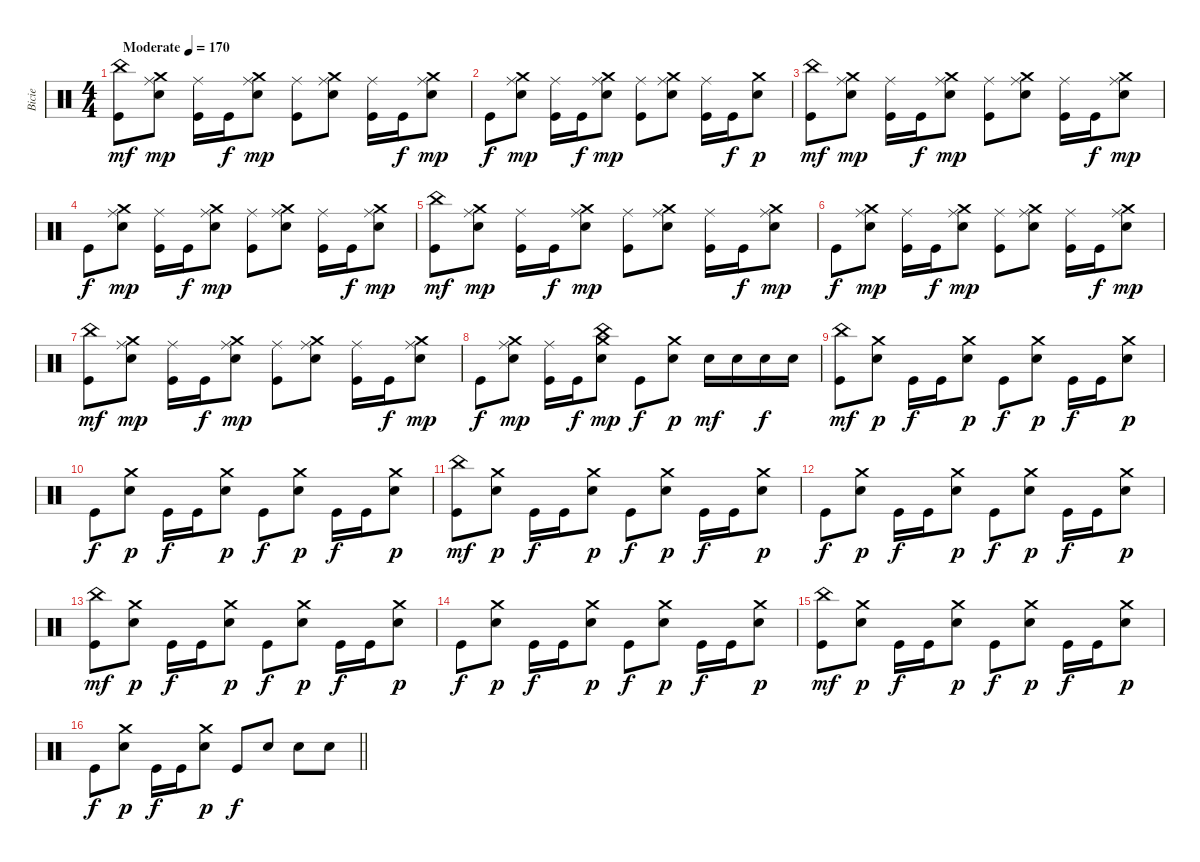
\track ("Bicie" "Bicie") {instrument percussion}
\staff {score}
\articulation defaults
\ts (4 4)
\tempo (170 "Moderate")
\clef neutral
\ks c
("Kick (hit)" "China (hit)").8{dy mf} ("Snare (hit) 2" "Crash medium (hit)" "Ride (middle)").8{dy mp} ("Kick (hit)" "Ride (middle)").16 "Kick (hit)".16{dy f} ("Snare (hit) 2" "Crash medium (hit)" "Ride (middle)").8{dy mp} ("Kick (hit)" "Ride (middle)").8 ("Snare (hit) 2" "Crash medium (hit)" "Ride (middle)").8 ("Kick (hit)" "Ride (middle)").16 "Kick (hit)".16{dy f} ("Snare (hit) 2" "Crash medium (hit)" "Ride (middle)").8{dy mp} |
"Kick (hit)".8{dy f} ("Snare (hit) 2" "Crash medium (hit)" "Ride (middle)").8{dy mp} ("Kick (hit)" "Ride (middle)").16 "Kick (hit)".16{dy f} ("Snare (hit) 2" "Crash medium (hit)" "Ride (middle)").8{dy mp} ("Kick (hit)" "Ride (middle)").8 ("Snare (hit) 2" "Crash medium (hit)" "Ride (middle)").8 ("Kick (hit)" "Ride (middle)").16 "Kick (hit)".16{dy f} ("Snare (hit) 2" "Crash medium (hit)").8{dy p} |
("Kick (hit)" "China (hit)").8{dy mf} ("Snare (hit) 2" "Crash medium (hit)" "Ride (middle)").8{dy mp} ("Kick (hit)" "Ride (middle)").16 "Kick (hit)".16{dy f} ("Snare (hit) 2" "Crash medium (hit)" "Ride (middle)").8{dy mp} ("Kick (hit)" "Ride (middle)").8 ("Snare (hit) 2" "Crash medium (hit)" "Ride (middle)").8 ("Kick (hit)" "Ride (middle)").16 "Kick (hit)".16{dy f} ("Snare (hit) 2" "Crash medium (hit)" "Ride (middle)").8{dy mp} |
"Kick (hit)".8{dy f} ("Snare (hit) 2" "Crash medium (hit)" "Ride (middle)").8{dy mp} ("Kick (hit)" "Ride (middle)").16 "Kick (hit)".16{dy f} ("Snare (hit) 2" "Crash medium (hit)" "Ride (middle)").8{dy mp} ("Kick (hit)" "Ride (middle)").8 ("Snare (hit) 2" "Crash medium (hit)" "Ride (middle)").8 ("Kick (hit)" "Ride (middle)").16 "Kick (hit)".16{dy f} ("Snare (hit) 2" "Crash medium (hit)" "Ride (middle)").8{dy mp} |
("Kick (hit)" "China (hit)").8{dy mf} ("Snare (hit) 2" "Crash medium (hit)" "Ride (middle)").8{dy mp} ("Kick (hit)" "Ride (middle)").16 "Kick (hit)".16{dy f} ("Snare (hit) 2" "Crash medium (hit)" "Ride (middle)").8{dy mp} ("Kick (hit)" "Ride (middle)").8 ("Snare (hit) 2" "Crash medium (hit)" "Ride (middle)").8 ("Kick (hit)" "Ride (middle)").16 "Kick (hit)".16{dy f} ("Snare (hit) 2" "Crash medium (hit)" "Ride (middle)").8{dy mp} |
"Kick (hit)".8{dy f} ("Snare (hit) 2" "Crash medium (hit)" "Ride (middle)").8{dy mp} ("Kick (hit)" "Ride (middle)").16 "Kick (hit)".16{dy f} ("Snare (hit) 2" "Crash medium (hit)" "Ride (middle)").8{dy mp} ("Kick (hit)" "Ride (middle)").8 ("Snare (hit) 2" "Crash medium (hit)" "Ride (middle)").8 ("Kick (hit)" "Ride (middle)").16 "Kick (hit)".16{dy f} ("Snare (hit) 2" "Crash medium (hit)" "Ride (middle)").8{dy mp} |
("Kick (hit)" "China (hit)").8{dy mf} ("Snare (hit) 2" "Crash medium (hit)" "Ride (middle)").8{dy mp} ("Kick (hit)" "Ride (middle)").16 "Kick (hit)".16{dy f} ("Snare (hit) 2" "Crash medium (hit)" "Ride (middle)").8{dy mp} ("Kick (hit)" "Ride (middle)").8 ("Snare (hit) 2" "Crash medium (hit)" "Ride (middle)").8 ("Kick (hit)" "Ride (middle)").16 "Kick (hit)".16{dy f} ("Snare (hit) 2" "Crash medium (hit)" "Ride (middle)").8{dy mp} |
"Kick (hit)".8{dy f} ("Snare (hit) 2" "Crash medium (hit)" "Ride (middle)").8{dy mp} ("Kick (hit)" "Ride (middle)").16 "Kick (hit)".16{dy f} ("Snare (hit) 2" "Crash medium (hit)" "China (hit)").8{dy mp} "Kick (hit)".8{dy f} ("Snare (hit) 2" "Crash medium (hit)").8{dy p} "Snare (hit) 2".16{dy mf} "Snare (hit) 2".16 "Snare (hit) 2".16{dy f} "Snare (hit) 2".16 |
("Kick (hit)" "China (hit)").8{dy mf} ("Snare (hit) 2" "Crash medium (hit)").8{dy p} "Kick (hit)".16{dy f} "Kick (hit)".16 ("Snare (hit) 2" "Crash medium (hit)").8{dy p} "Kick (hit)".8{dy f} ("Snare (hit) 2" "Crash medium (hit)").8{dy p} "Kick (hit)".16{dy f} "Kick (hit)".16 ("Snare (hit) 2" "Crash medium (hit)").8{dy p} |
"Kick (hit)".8{dy f} ("Snare (hit) 2" "Crash medium (hit)").8{dy p} "Kick (hit)".16{dy f} "Kick (hit)".16 ("Snare (hit) 2" "Crash medium (hit)").8{dy p} "Kick (hit)".8{dy f} ("Snare (hit) 2" "Crash medium (hit)").8{dy p} "Kick (hit)".16{dy f} "Kick (hit)".16 ("Snare (hit) 2" "Crash medium (hit)").8{dy p} |
("Kick (hit)" "China (hit)").8{dy mf} ("Snare (hit) 2" "Crash medium (hit)").8{dy p} "Kick (hit)".16{dy f} "Kick (hit)".16 ("Snare (hit) 2" "Crash medium (hit)").8{dy p} "Kick (hit)".8{dy f} ("Snare (hit) 2" "Crash medium (hit)").8{dy p} "Kick (hit)".16{dy f} "Kick (hit)".16 ("Snare (hit) 2" "Crash medium (hit)").8{dy p} |
"Kick (hit)".8{dy f} ("Snare (hit) 2" "Crash medium (hit)").8{dy p} "Kick (hit)".16{dy f} "Kick (hit)".16 ("Snare (hit) 2" "Crash medium (hit)").8{dy p} "Kick (hit)".8{dy f} ("Snare (hit) 2" "Crash medium (hit)").8{dy p} "Kick (hit)".16{dy f} "Kick (hit)".16 ("Snare (hit) 2" "Crash medium (hit)").8{dy p} |
("Kick (hit)" "China (hit)").8{dy mf} ("Snare (hit) 2" "Crash medium (hit)").8{dy p} "Kick (hit)".16{dy f} "Kick (hit)".16 ("Snare (hit) 2" "Crash medium (hit)").8{dy p} "Kick (hit)".8{dy f} ("Snare (hit) 2" "Crash medium (hit)").8{dy p} "Kick (hit)".16{dy f} "Kick (hit)".16 ("Snare (hit) 2" "Crash medium (hit)").8{dy p} |
"Kick (hit)".8{dy f} ("Snare (hit) 2" "Crash medium (hit)").8{dy p} "Kick (hit)".16{dy f} "Kick (hit)".16 ("Snare (hit) 2" "Crash medium (hit)").8{dy p} "Kick (hit)".8{dy f} ("Snare (hit) 2" "Crash medium (hit)").8{dy p} "Kick (hit)".16{dy f} "Kick (hit)".16 ("Snare (hit) 2" "Crash medium (hit)").8{dy p} |
("Kick (hit)" "China (hit)").8{dy mf} ("Snare (hit) 2" "Crash medium (hit)").8{dy p} "Kick (hit)".16{dy f} "Kick (hit)".16 ("Snare (hit) 2" "Crash medium (hit)").8{dy p} "Kick (hit)".8{dy f} ("Snare (hit) 2" "Crash medium (hit)").8{dy p} "Kick (hit)".16{dy f} "Kick (hit)".16 ("Snare (hit) 2" "Crash medium (hit)").8{dy p} |
\barLineRight lightlight "Kick (hit)".8{dy f}
("Snare (hit) 2" "Crash medium (hit)").8{dy p} "Kick (hit)".16{dy f} "Kick (hit)".16 ("Snare (hit) 2" "Crash medium (hit)").8{dy p} "Kick (hit)".8{dy f} "Snare (hit) 2".8 "Snare (hit) 2".8 "Snare (hit) 2".8
